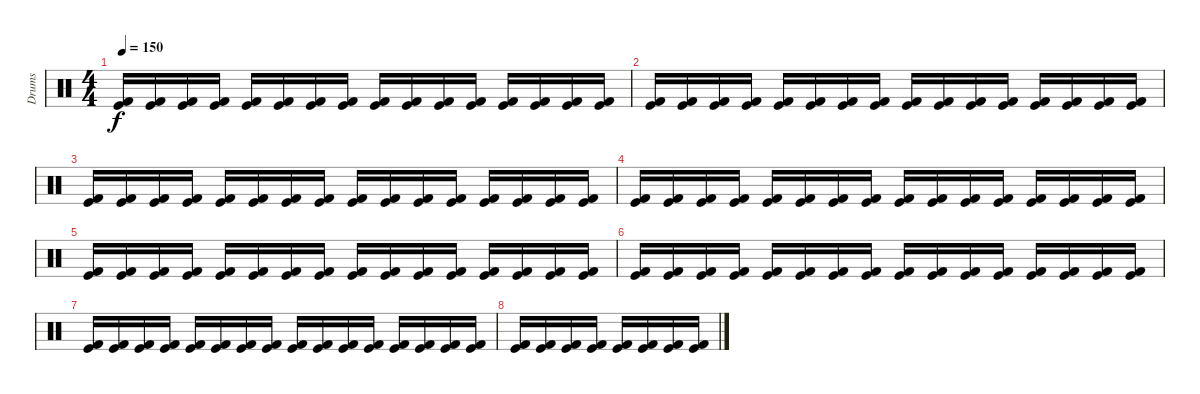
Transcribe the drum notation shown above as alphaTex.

\track ("Drums" "Drums") {instrument percussion}
\staff {score}
\articulation defaults
\ts (4 4)
\tempo 150
\clef neutral
\ks c
("Kick (hit) 2" "Kick (hit)").16{dy f} ("Kick (hit) 2" "Kick (hit)").16 ("Kick (hit) 2" "Kick (hit)").16 ("Kick (hit) 2" "Kick (hit)").16 ("Kick (hit) 2" "Kick (hit)").16 ("Kick (hit) 2" "Kick (hit)").16 ("Kick (hit) 2" "Kick (hit)").16 ("Kick (hit) 2" "Kick (hit)").16 ("Kick (hit) 2" "Kick (hit)").16 ("Kick (hit) 2" "Kick (hit)").16 ("Kick (hit) 2" "Kick (hit)").16 ("Kick (hit) 2" "Kick (hit)").16 ("Kick (hit) 2" "Kick (hit)").16 ("Kick (hit) 2" "Kick (hit)").16 ("Kick (hit) 2" "Kick (hit)").16 ("Kick (hit) 2" "Kick (hit)").16 |
("Kick (hit) 2" "Kick (hit)").16 ("Kick (hit) 2" "Kick (hit)").16 ("Kick (hit) 2" "Kick (hit)").16 ("Kick (hit) 2" "Kick (hit)").16 ("Kick (hit) 2" "Kick (hit)").16 ("Kick (hit) 2" "Kick (hit)").16 ("Kick (hit) 2" "Kick (hit)").16 ("Kick (hit) 2" "Kick (hit)").16 ("Kick (hit) 2" "Kick (hit)").16 ("Kick (hit) 2" "Kick (hit)").16 ("Kick (hit) 2" "Kick (hit)").16 ("Kick (hit) 2" "Kick (hit)").16 ("Kick (hit) 2" "Kick (hit)").16 ("Kick (hit) 2" "Kick (hit)").16 ("Kick (hit) 2" "Kick (hit)").16 ("Kick (hit) 2" "Kick (hit)").16 |
("Kick (hit) 2" "Kick (hit)").16 ("Kick (hit) 2" "Kick (hit)").16 ("Kick (hit) 2" "Kick (hit)").16 ("Kick (hit) 2" "Kick (hit)").16 ("Kick (hit) 2" "Kick (hit)").16 ("Kick (hit) 2" "Kick (hit)").16 ("Kick (hit) 2" "Kick (hit)").16 ("Kick (hit) 2" "Kick (hit)").16 ("Kick (hit) 2" "Kick (hit)").16 ("Kick (hit) 2" "Kick (hit)").16 ("Kick (hit) 2" "Kick (hit)").16 ("Kick (hit) 2" "Kick (hit)").16 ("Kick (hit) 2" "Kick (hit)").16 ("Kick (hit) 2" "Kick (hit)").16 ("Kick (hit) 2" "Kick (hit)").16 ("Kick (hit) 2" "Kick (hit)").16 |
("Kick (hit) 2" "Kick (hit)").16 ("Kick (hit) 2" "Kick (hit)").16 ("Kick (hit) 2" "Kick (hit)").16 ("Kick (hit) 2" "Kick (hit)").16 ("Kick (hit) 2" "Kick (hit)").16 ("Kick (hit) 2" "Kick (hit)").16 ("Kick (hit) 2" "Kick (hit)").16 ("Kick (hit) 2" "Kick (hit)").16 ("Kick (hit) 2" "Kick (hit)").16 ("Kick (hit) 2" "Kick (hit)").16 ("Kick (hit) 2" "Kick (hit)").16 ("Kick (hit) 2" "Kick (hit)").16 ("Kick (hit) 2" "Kick (hit)").16 ("Kick (hit) 2" "Kick (hit)").16 ("Kick (hit) 2" "Kick (hit)").16 ("Kick (hit) 2" "Kick (hit)").16 |
("Kick (hit) 2" "Kick (hit)").16 ("Kick (hit) 2" "Kick (hit)").16 ("Kick (hit) 2" "Kick (hit)").16 ("Kick (hit) 2" "Kick (hit)").16 ("Kick (hit) 2" "Kick (hit)").16 ("Kick (hit) 2" "Kick (hit)").16 ("Kick (hit) 2" "Kick (hit)").16 ("Kick (hit) 2" "Kick (hit)").16 ("Kick (hit) 2" "Kick (hit)").16 ("Kick (hit) 2" "Kick (hit)").16 ("Kick (hit) 2" "Kick (hit)").16 ("Kick (hit) 2" "Kick (hit)").16 ("Kick (hit) 2" "Kick (hit)").16 ("Kick (hit) 2" "Kick (hit)").16 ("Kick (hit) 2" "Kick (hit)").16 ("Kick (hit) 2" "Kick (hit)").16 |
("Kick (hit) 2" "Kick (hit)").16 ("Kick (hit) 2" "Kick (hit)").16 ("Kick (hit) 2" "Kick (hit)").16 ("Kick (hit) 2" "Kick (hit)").16 ("Kick (hit) 2" "Kick (hit)").16 ("Kick (hit) 2" "Kick (hit)").16 ("Kick (hit) 2" "Kick (hit)").16 ("Kick (hit) 2" "Kick (hit)").16 ("Kick (hit) 2" "Kick (hit)").16 ("Kick (hit) 2" "Kick (hit)").16 ("Kick (hit) 2" "Kick (hit)").16 ("Kick (hit) 2" "Kick (hit)").16 ("Kick (hit) 2" "Kick (hit)").16 ("Kick (hit) 2" "Kick (hit)").16 ("Kick (hit) 2" "Kick (hit)").16 ("Kick (hit) 2" "Kick (hit)").16 |
("Kick (hit) 2" "Kick (hit)").16 ("Kick (hit) 2" "Kick (hit)").16 ("Kick (hit) 2" "Kick (hit)").16 ("Kick (hit) 2" "Kick (hit)").16 ("Kick (hit) 2" "Kick (hit)").16 ("Kick (hit) 2" "Kick (hit)").16 ("Kick (hit) 2" "Kick (hit)").16 ("Kick (hit) 2" "Kick (hit)").16 ("Kick (hit) 2" "Kick (hit)").16 ("Kick (hit) 2" "Kick (hit)").16 ("Kick (hit) 2" "Kick (hit)").16 ("Kick (hit) 2" "Kick (hit)").16 ("Kick (hit) 2" "Kick (hit)").16 ("Kick (hit) 2" "Kick (hit)").16 ("Kick (hit) 2" "Kick (hit)").16 ("Kick (hit) 2" "Kick (hit)").16 |
("Kick (hit) 2" "Kick (hit)").16 ("Kick (hit) 2" "Kick (hit)").16 ("Kick (hit) 2" "Kick (hit)").16 ("Kick (hit) 2" "Kick (hit)").16 ("Kick (hit) 2" "Kick (hit)").16 ("Kick (hit) 2" "Kick (hit)").16 ("Kick (hit) 2" "Kick (hit)").16 ("Kick (hit) 2" "Kick (hit)").16
